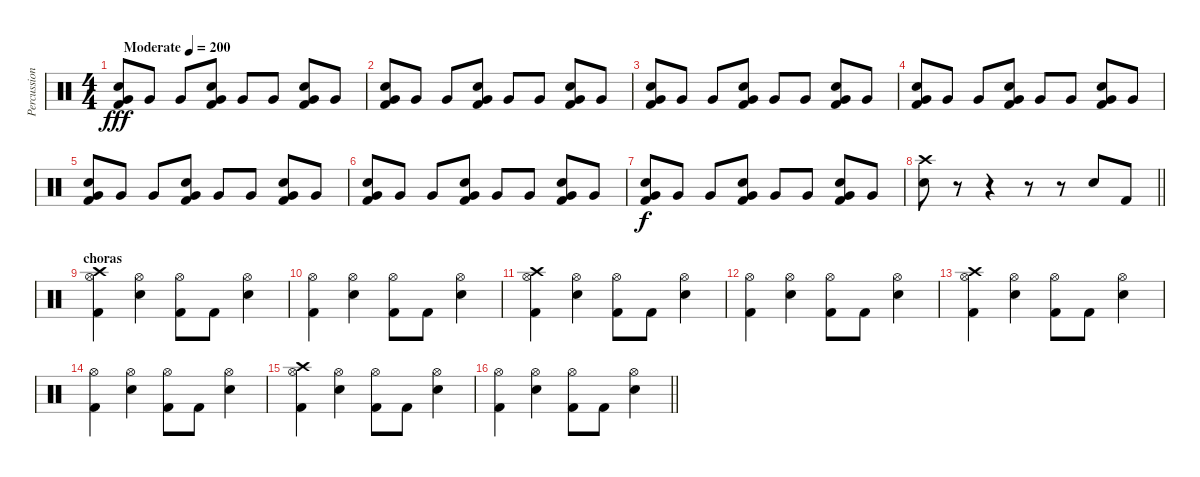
\track ("Percussion" "Percussion") {instrument percussion}
\staff {score}
\articulation defaults
\ts (4 4)
\tempo (200 "Moderate")
\clef neutral
\ks c
("Kick (hit) 2" "Electric Snare (hit)" "Very Low Tom (hit)").8{dy fff} "Very Low Tom (hit)".8 "Very Low Tom (hit)".8 ("Kick (hit) 2" "Electric Snare (hit)" "Very Low Tom (hit)").8 "Very Low Tom (hit)".8 "Very Low Tom (hit)".8 ("Kick (hit) 2" "Electric Snare (hit)" "Very Low Tom (hit)").8 "Very Low Tom (hit)".8 |
("Kick (hit) 2" "Electric Snare (hit)" "Very Low Tom (hit)").8 "Very Low Tom (hit)".8 "Very Low Tom (hit)".8 ("Kick (hit) 2" "Electric Snare (hit)" "Very Low Tom (hit)").8 "Very Low Tom (hit)".8 "Very Low Tom (hit)".8 ("Kick (hit) 2" "Electric Snare (hit)" "Very Low Tom (hit)").8 "Very Low Tom (hit)".8 |
("Kick (hit) 2" "Electric Snare (hit)" "Very Low Tom (hit)").8 "Very Low Tom (hit)".8 "Very Low Tom (hit)".8 ("Kick (hit) 2" "Electric Snare (hit)" "Very Low Tom (hit)").8 "Very Low Tom (hit)".8 "Very Low Tom (hit)".8 ("Kick (hit) 2" "Electric Snare (hit)" "Very Low Tom (hit)").8 "Very Low Tom (hit)".8 |
("Kick (hit) 2" "Electric Snare (hit)" "Very Low Tom (hit)").8 "Very Low Tom (hit)".8 "Very Low Tom (hit)".8 ("Kick (hit) 2" "Electric Snare (hit)" "Very Low Tom (hit)").8 "Very Low Tom (hit)".8 "Very Low Tom (hit)".8 ("Kick (hit) 2" "Electric Snare (hit)" "Very Low Tom (hit)").8 "Very Low Tom (hit)".8 |
("Kick (hit) 2" "Electric Snare (hit)" "Very Low Tom (hit)").8 "Very Low Tom (hit)".8 "Very Low Tom (hit)".8 ("Kick (hit) 2" "Electric Snare (hit)" "Very Low Tom (hit)").8 "Very Low Tom (hit)".8 "Very Low Tom (hit)".8 ("Kick (hit) 2" "Electric Snare (hit)" "Very Low Tom (hit)").8 "Very Low Tom (hit)".8 |
("Kick (hit) 2" "Electric Snare (hit)" "Very Low Tom (hit)").8 "Very Low Tom (hit)".8 "Very Low Tom (hit)".8 ("Kick (hit) 2" "Electric Snare (hit)" "Very Low Tom (hit)").8 "Very Low Tom (hit)".8 "Very Low Tom (hit)".8 ("Kick (hit) 2" "Electric Snare (hit)" "Very Low Tom (hit)").8 "Very Low Tom (hit)".8 |
("Kick (hit) 2" "Electric Snare (hit)" "Very Low Tom (hit)").8{dy f} "Very Low Tom (hit)".8 "Very Low Tom (hit)".8 ("Kick (hit) 2" "Electric Snare (hit)" "Very Low Tom (hit)").8 "Very Low Tom (hit)".8 "Very Low Tom (hit)".8 ("Kick (hit) 2" "Electric Snare (hit)" "Very Low Tom (hit)").8 "Very Low Tom (hit)".8 |
\barLineRight lightlight
("Crash high (hit)" "Electric Snare (hit)").8 r.8 r.4 r.8 r.8 "Electric Snare (hit)".8 "Kick (hit) 2".8 |
\section ("" "choras")
("Crash high (hit)" "Hi-Hat (open)" "Kick (hit) 2").4 ("Hi-Hat (open)" "Electric Snare (hit)").4 ("Hi-Hat (open)" "Kick (hit) 2").8 "Kick (hit) 2".8 ("Hi-Hat (open)" "Electric Snare (hit)").4 |
("Hi-Hat (open)" "Kick (hit) 2").4 ("Hi-Hat (open)" "Electric Snare (hit)").4 ("Hi-Hat (open)" "Kick (hit) 2").8 "Kick (hit) 2".8 ("Hi-Hat (open)" "Electric Snare (hit)").4 |
("Crash high (hit)" "Hi-Hat (open)" "Kick (hit) 2").4 ("Hi-Hat (open)" "Electric Snare (hit)").4 ("Hi-Hat (open)" "Kick (hit) 2").8 "Kick (hit) 2".8 ("Hi-Hat (open)" "Electric Snare (hit)").4 |
("Hi-Hat (open)" "Kick (hit) 2").4 ("Hi-Hat (open)" "Electric Snare (hit)").4 ("Hi-Hat (open)" "Kick (hit) 2").8 "Kick (hit) 2".8 ("Hi-Hat (open)" "Electric Snare (hit)").4 |
("Crash high (hit)" "Hi-Hat (open)" "Kick (hit) 2").4 ("Hi-Hat (open)" "Electric Snare (hit)").4 ("Hi-Hat (open)" "Kick (hit) 2").8 "Kick (hit) 2".8 ("Hi-Hat (open)" "Electric Snare (hit)").4 |
("Hi-Hat (open)" "Kick (hit) 2").4 ("Hi-Hat (open)" "Electric Snare (hit)").4 ("Hi-Hat (open)" "Kick (hit) 2").8 "Kick (hit) 2".8 ("Hi-Hat (open)" "Electric Snare (hit)").4 |
("Crash high (hit)" "Hi-Hat (open)" "Kick (hit) 2").4 ("Hi-Hat (open)" "Electric Snare (hit)").4 ("Hi-Hat (open)" "Kick (hit) 2").8 "Kick (hit) 2".8 ("Hi-Hat (open)" "Electric Snare (hit)").4 |
\barLineRight lightlight
("Hi-Hat (open)" "Kick (hit) 2").4 ("Hi-Hat (open)" "Electric Snare (hit)").4 ("Hi-Hat (open)" "Kick (hit) 2").8 "Kick (hit) 2".8 ("Hi-Hat (open)" "Electric Snare (hit)").4
